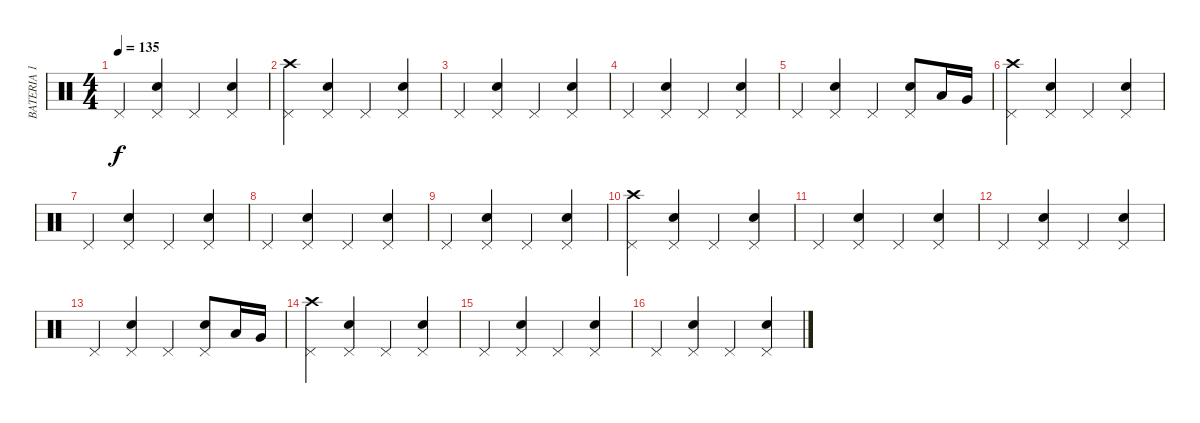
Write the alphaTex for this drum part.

\track ("BATERIA 1" "BATERIA 1") {instrument percussion}
\staff {score}
\articulation defaults
\ts (4 4)
\tempo 135
\clef neutral
\ks c "Pedal Hi-Hat (hit)".4{dy f}
("Electric Snare (hit)" "Pedal Hi-Hat (hit)").4 "Pedal Hi-Hat (hit)".4 ("Electric Snare (hit)" "Pedal Hi-Hat (hit)").4 |
("Pedal Hi-Hat (hit)" "Crash high (hit)").4 ("Electric Snare (hit)" "Pedal Hi-Hat (hit)").4 "Pedal Hi-Hat (hit)".4 ("Electric Snare (hit)" "Pedal Hi-Hat (hit)").4 |
"Pedal Hi-Hat (hit)".4 ("Electric Snare (hit)" "Pedal Hi-Hat (hit)").4 "Pedal Hi-Hat (hit)".4 ("Electric Snare (hit)" "Pedal Hi-Hat (hit)").4 |
"Pedal Hi-Hat (hit)".4 ("Electric Snare (hit)" "Pedal Hi-Hat (hit)").4 "Pedal Hi-Hat (hit)".4 ("Electric Snare (hit)" "Pedal Hi-Hat (hit)").4 |
"Pedal Hi-Hat (hit)".4 ("Electric Snare (hit)" "Pedal Hi-Hat (hit)").4 "Pedal Hi-Hat (hit)".4 ("Electric Snare (hit)" "Pedal Hi-Hat (hit)").8 "Low Tom (hit)".16 "Very Low Tom (hit)".16 |
("Pedal Hi-Hat (hit)" "Crash high (hit)").4 ("Electric Snare (hit)" "Pedal Hi-Hat (hit)").4 "Pedal Hi-Hat (hit)".4 ("Electric Snare (hit)" "Pedal Hi-Hat (hit)").4 |
"Pedal Hi-Hat (hit)".4 ("Electric Snare (hit)" "Pedal Hi-Hat (hit)").4 "Pedal Hi-Hat (hit)".4 ("Electric Snare (hit)" "Pedal Hi-Hat (hit)").4 |
"Pedal Hi-Hat (hit)".4 ("Electric Snare (hit)" "Pedal Hi-Hat (hit)").4 "Pedal Hi-Hat (hit)".4 ("Electric Snare (hit)" "Pedal Hi-Hat (hit)").4 |
"Pedal Hi-Hat (hit)".4 ("Electric Snare (hit)" "Pedal Hi-Hat (hit)").4 "Pedal Hi-Hat (hit)".4 ("Electric Snare (hit)" "Pedal Hi-Hat (hit)").4 |
("Pedal Hi-Hat (hit)" "Crash high (hit)").4 ("Electric Snare (hit)" "Pedal Hi-Hat (hit)").4 "Pedal Hi-Hat (hit)".4 ("Electric Snare (hit)" "Pedal Hi-Hat (hit)").4 |
"Pedal Hi-Hat (hit)".4 ("Electric Snare (hit)" "Pedal Hi-Hat (hit)").4 "Pedal Hi-Hat (hit)".4 ("Electric Snare (hit)" "Pedal Hi-Hat (hit)").4 |
"Pedal Hi-Hat (hit)".4 ("Electric Snare (hit)" "Pedal Hi-Hat (hit)").4 "Pedal Hi-Hat (hit)".4 ("Electric Snare (hit)" "Pedal Hi-Hat (hit)").4 |
"Pedal Hi-Hat (hit)".4 ("Electric Snare (hit)" "Pedal Hi-Hat (hit)").4 "Pedal Hi-Hat (hit)".4 ("Electric Snare (hit)" "Pedal Hi-Hat (hit)").8 "Low Tom (hit)".16 "Very Low Tom (hit)".16 |
("Pedal Hi-Hat (hit)" "Crash high (hit)").4 ("Electric Snare (hit)" "Pedal Hi-Hat (hit)").4 "Pedal Hi-Hat (hit)".4 ("Electric Snare (hit)" "Pedal Hi-Hat (hit)").4 |
"Pedal Hi-Hat (hit)".4 ("Electric Snare (hit)" "Pedal Hi-Hat (hit)").4 "Pedal Hi-Hat (hit)".4 ("Electric Snare (hit)" "Pedal Hi-Hat (hit)").4 |
"Pedal Hi-Hat (hit)".4 ("Electric Snare (hit)" "Pedal Hi-Hat (hit)").4 "Pedal Hi-Hat (hit)".4 ("Electric Snare (hit)" "Pedal Hi-Hat (hit)").4
